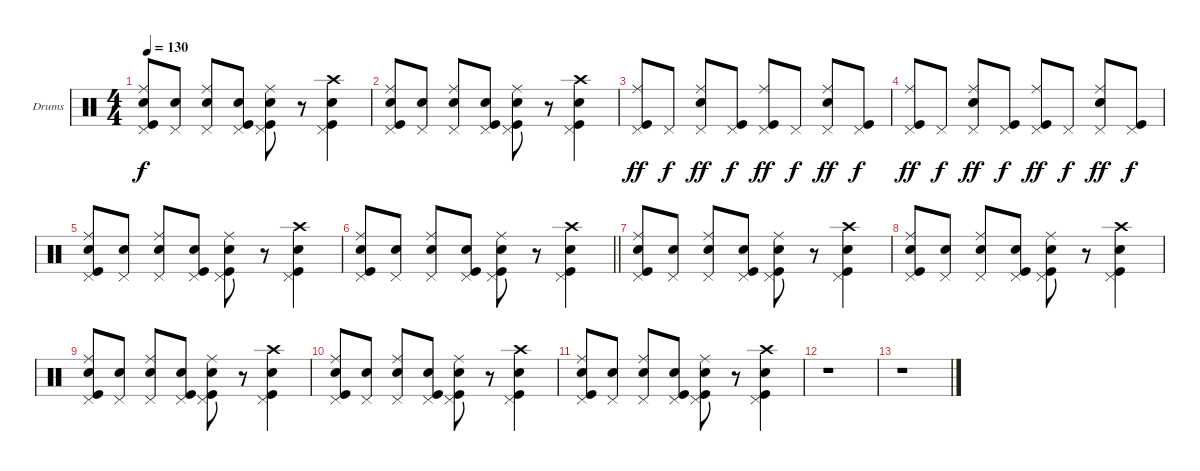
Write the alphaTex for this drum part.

\bracketExtendMode groupsimilarinstruments
\firstSystemTrackNameOrientation horizontal
\otherSystemsTrackNameOrientation horizontal
\track ("Drumkit" "Drums") {instrument percussion}
\staff {score}
\articulation defaults
\ts (4 4)
\tempo 130
\clef neutral
\ks c
("Ride (middle)" "Pedal Hi-Hat (hit)" "Snare (hit) 2" "Kick (hit)").8{dy f} ("Pedal Hi-Hat (hit)" "Snare (hit) 2").8 ("Ride (middle)" "Pedal Hi-Hat (hit)" "Snare (hit) 2").8 ("Pedal Hi-Hat (hit)" "Snare (hit) 2" "Kick (hit)").8 ("Ride (middle)" "Pedal Hi-Hat (hit)" "Snare (hit) 2" "Kick (hit)").8 r.8 ("Crash high (hit)" "Pedal Hi-Hat (hit)" "Snare (hit) 2" "Kick (hit)").4 |
("Ride (middle)" "Pedal Hi-Hat (hit)" "Snare (hit) 2" "Kick (hit)").8 ("Pedal Hi-Hat (hit)" "Snare (hit) 2").8 ("Ride (middle)" "Pedal Hi-Hat (hit)" "Snare (hit) 2").8 ("Pedal Hi-Hat (hit)" "Snare (hit) 2" "Kick (hit)").8 ("Ride (middle)" "Pedal Hi-Hat (hit)" "Snare (hit) 2" "Kick (hit)").8 r.8 ("Crash high (hit)" "Pedal Hi-Hat (hit)" "Snare (hit) 2" "Kick (hit)").4 |
("Ride (middle)" "Pedal Hi-Hat (hit)" "Kick (hit)").8{dy ff} "Pedal Hi-Hat (hit)".8{dy f} ("Ride (middle)" "Snare (hit) 2" "Pedal Hi-Hat (hit)").8{dy ff} ("Pedal Hi-Hat (hit)" "Kick (hit)").8{dy f} ("Ride (middle)" "Pedal Hi-Hat (hit)" "Kick (hit)").8{dy ff} "Pedal Hi-Hat (hit)".8{dy f} ("Ride (middle)" "Snare (hit) 2" "Pedal Hi-Hat (hit)").8{dy ff} ("Pedal Hi-Hat (hit)" "Kick (hit)").8{dy f} |
("Ride (middle)" "Pedal Hi-Hat (hit)" "Kick (hit)").8{dy ff} "Pedal Hi-Hat (hit)".8{dy f} ("Ride (middle)" "Snare (hit) 2" "Pedal Hi-Hat (hit)").8{dy ff} ("Pedal Hi-Hat (hit)" "Kick (hit)").8{dy f} ("Ride (middle)" "Pedal Hi-Hat (hit)" "Kick (hit)").8{dy ff} "Pedal Hi-Hat (hit)".8{dy f} ("Ride (middle)" "Snare (hit) 2" "Pedal Hi-Hat (hit)").8{dy ff} ("Pedal Hi-Hat (hit)" "Kick (hit)").8{dy f} |
("Ride (middle)" "Pedal Hi-Hat (hit)" "Snare (hit) 2" "Kick (hit)").8 ("Pedal Hi-Hat (hit)" "Snare (hit) 2").8 ("Ride (middle)" "Pedal Hi-Hat (hit)" "Snare (hit) 2").8 ("Pedal Hi-Hat (hit)" "Snare (hit) 2" "Kick (hit)").8 ("Ride (middle)" "Pedal Hi-Hat (hit)" "Snare (hit) 2" "Kick (hit)").8 r.8 ("Crash high (hit)" "Pedal Hi-Hat (hit)" "Snare (hit) 2" "Kick (hit)").4 |
\barLineRight lightlight
("Ride (middle)" "Pedal Hi-Hat (hit)" "Snare (hit) 2" "Kick (hit)").8 ("Pedal Hi-Hat (hit)" "Snare (hit) 2").8 ("Ride (middle)" "Pedal Hi-Hat (hit)" "Snare (hit) 2").8 ("Pedal Hi-Hat (hit)" "Snare (hit) 2" "Kick (hit)").8 ("Ride (middle)" "Pedal Hi-Hat (hit)" "Snare (hit) 2" "Kick (hit)").8 r.8 ("Crash high (hit)" "Pedal Hi-Hat (hit)" "Snare (hit) 2" "Kick (hit)").4 |
("Ride (middle)" "Pedal Hi-Hat (hit)" "Snare (hit) 2" "Kick (hit)").8 ("Pedal Hi-Hat (hit)" "Snare (hit) 2").8 ("Ride (middle)" "Pedal Hi-Hat (hit)" "Snare (hit) 2").8 ("Pedal Hi-Hat (hit)" "Snare (hit) 2" "Kick (hit)").8 ("Ride (middle)" "Pedal Hi-Hat (hit)" "Snare (hit) 2" "Kick (hit)").8 r.8 ("Crash high (hit)" "Pedal Hi-Hat (hit)" "Snare (hit) 2" "Kick (hit)").4 |
("Ride (middle)" "Pedal Hi-Hat (hit)" "Snare (hit) 2" "Kick (hit)").8 ("Pedal Hi-Hat (hit)" "Snare (hit) 2").8 ("Ride (middle)" "Pedal Hi-Hat (hit)" "Snare (hit) 2").8 ("Pedal Hi-Hat (hit)" "Snare (hit) 2" "Kick (hit)").8 ("Ride (middle)" "Pedal Hi-Hat (hit)" "Snare (hit) 2" "Kick (hit)").8 r.8 ("Crash high (hit)" "Pedal Hi-Hat (hit)" "Snare (hit) 2" "Kick (hit)").4 |
("Ride (middle)" "Pedal Hi-Hat (hit)" "Snare (hit) 2" "Kick (hit)").8 ("Pedal Hi-Hat (hit)" "Snare (hit) 2").8 ("Ride (middle)" "Pedal Hi-Hat (hit)" "Snare (hit) 2").8 ("Pedal Hi-Hat (hit)" "Snare (hit) 2" "Kick (hit)").8 ("Ride (middle)" "Pedal Hi-Hat (hit)" "Snare (hit) 2" "Kick (hit)").8 r.8 ("Crash high (hit)" "Pedal Hi-Hat (hit)" "Snare (hit) 2" "Kick (hit)").4 |
("Ride (middle)" "Pedal Hi-Hat (hit)" "Snare (hit) 2" "Kick (hit)").8 ("Pedal Hi-Hat (hit)" "Snare (hit) 2").8 ("Ride (middle)" "Pedal Hi-Hat (hit)" "Snare (hit) 2").8 ("Pedal Hi-Hat (hit)" "Snare (hit) 2" "Kick (hit)").8 ("Ride (middle)" "Pedal Hi-Hat (hit)" "Snare (hit) 2" "Kick (hit)").8 r.8 ("Crash high (hit)" "Pedal Hi-Hat (hit)" "Snare (hit) 2" "Kick (hit)").4 |
("Ride (middle)" "Pedal Hi-Hat (hit)" "Snare (hit) 2" "Kick (hit)").8 ("Pedal Hi-Hat (hit)" "Snare (hit) 2").8 ("Ride (middle)" "Pedal Hi-Hat (hit)" "Snare (hit) 2").8 ("Pedal Hi-Hat (hit)" "Snare (hit) 2" "Kick (hit)").8 ("Ride (middle)" "Pedal Hi-Hat (hit)" "Snare (hit) 2" "Kick (hit)").8 r.8 ("Crash high (hit)" "Pedal Hi-Hat (hit)" "Snare (hit) 2" "Kick (hit)").4 |
r.1 |
r.1
